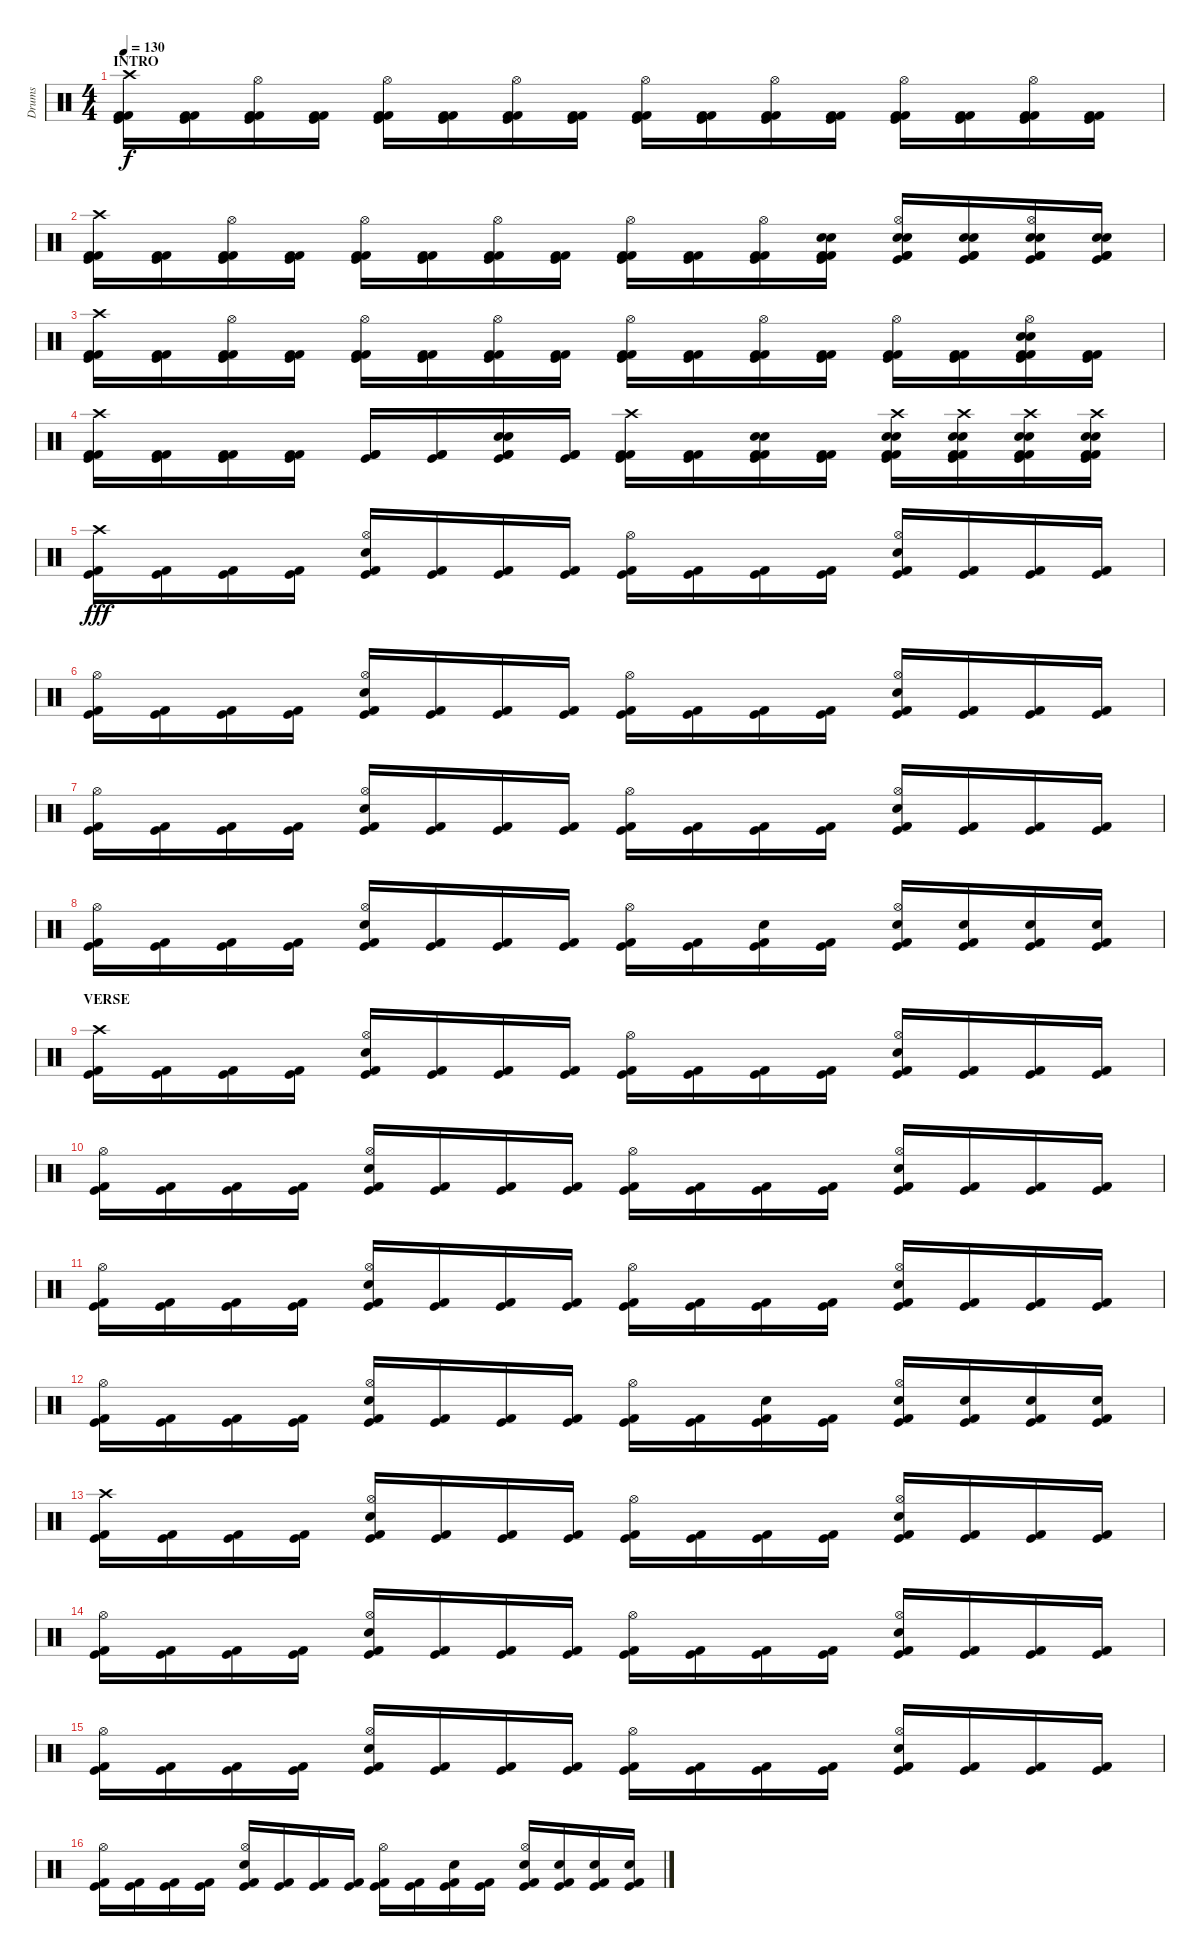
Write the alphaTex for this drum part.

\track ("Drums" "Drums") {instrument percussion}
\staff {score}
\articulation defaults
\ts (4 4)
\section ("" "INTRO")
\tempo 130
\clef neutral
\ks c
("Crash high (hit)" "Kick (hit)" "Kick (hit) 2" "Kick (hit) 2").16{dy f} ("Kick (hit)" "Kick (hit) 2" "Kick (hit) 2").16 ("Hi-Hat (open)" "Kick (hit)" "Kick (hit) 2" "Kick (hit) 2").16 ("Kick (hit)" "Kick (hit) 2" "Kick (hit) 2").16 ("Hi-Hat (open)" "Kick (hit)" "Kick (hit) 2" "Kick (hit) 2").16 ("Kick (hit)" "Kick (hit) 2" "Kick (hit) 2").16 ("Hi-Hat (open)" "Kick (hit)" "Kick (hit) 2" "Kick (hit) 2").16 ("Kick (hit)" "Kick (hit) 2" "Kick (hit) 2").16 ("Hi-Hat (open)" "Kick (hit)" "Kick (hit) 2" "Kick (hit) 2").16 ("Kick (hit)" "Kick (hit) 2" "Kick (hit) 2").16 ("Hi-Hat (open)" "Kick (hit)" "Kick (hit) 2" "Kick (hit) 2").16 ("Kick (hit)" "Kick (hit) 2" "Kick (hit) 2").16 ("Hi-Hat (open)" "Kick (hit)" "Kick (hit) 2" "Kick (hit) 2").16 ("Kick (hit)" "Kick (hit) 2" "Kick (hit) 2").16 ("Hi-Hat (open)" "Kick (hit)" "Kick (hit) 2" "Kick (hit) 2").16 ("Kick (hit)" "Kick (hit) 2" "Kick (hit) 2").16 |
("Crash high (hit)" "Kick (hit)" "Kick (hit) 2" "Kick (hit) 2").16 ("Kick (hit)" "Kick (hit) 2" "Kick (hit) 2").16 ("Hi-Hat (open)" "Kick (hit)" "Kick (hit) 2" "Kick (hit) 2").16 ("Kick (hit)" "Kick (hit) 2" "Kick (hit) 2").16 ("Hi-Hat (open)" "Kick (hit)" "Kick (hit) 2" "Kick (hit) 2").16 ("Kick (hit)" "Kick (hit) 2" "Kick (hit) 2").16 ("Hi-Hat (open)" "Kick (hit)" "Kick (hit) 2" "Kick (hit) 2").16 ("Kick (hit)" "Kick (hit) 2" "Kick (hit) 2").16 ("Hi-Hat (open)" "Kick (hit)" "Kick (hit) 2" "Kick (hit) 2").16 ("Kick (hit)" "Kick (hit) 2" "Kick (hit) 2").16 ("Hi-Hat (open)" "Kick (hit)" "Kick (hit) 2" "Kick (hit) 2").16 ("Kick (hit)" "Kick (hit) 2" "Electric Snare (hit)" "Electric Snare (hit)" "Kick (hit) 2").16 ("Hi-Hat (open)" "Kick (hit)" "Kick (hit) 2" "Electric Snare (hit)" "Electric Snare (hit)" "Kick (hit) 2").16 ("Kick (hit)" "Kick (hit) 2" "Electric Snare (hit)" "Electric Snare (hit)" "Kick (hit) 2").16 ("Hi-Hat (open)" "Kick (hit)" "Kick (hit) 2" "Electric Snare (hit)" "Electric Snare (hit)" "Kick (hit) 2").16 ("Kick (hit)" "Kick (hit) 2" "Electric Snare (hit)" "Electric Snare (hit)" "Kick (hit) 2").16 |
("Crash high (hit)" "Kick (hit)" "Kick (hit) 2" "Kick (hit) 2").16 ("Kick (hit)" "Kick (hit) 2" "Kick (hit) 2").16 ("Hi-Hat (open)" "Kick (hit)" "Kick (hit) 2" "Kick (hit) 2").16 ("Kick (hit)" "Kick (hit) 2" "Kick (hit) 2").16 ("Hi-Hat (open)" "Kick (hit)" "Kick (hit) 2" "Kick (hit) 2").16 ("Kick (hit)" "Kick (hit) 2" "Kick (hit) 2").16 ("Hi-Hat (open)" "Kick (hit)" "Kick (hit) 2" "Kick (hit) 2").16 ("Kick (hit)" "Kick (hit) 2" "Kick (hit) 2").16 ("Hi-Hat (open)" "Kick (hit)" "Kick (hit) 2" "Kick (hit) 2").16 ("Kick (hit)" "Kick (hit) 2" "Kick (hit) 2").16 ("Hi-Hat (open)" "Kick (hit)" "Kick (hit) 2" "Kick (hit) 2").16 ("Kick (hit)" "Kick (hit) 2" "Kick (hit) 2").16 ("Hi-Hat (open)" "Kick (hit)" "Kick (hit) 2" "Kick (hit) 2").16 ("Kick (hit)" "Kick (hit) 2" "Kick (hit) 2").16 ("Hi-Hat (open)" "Kick (hit)" "Kick (hit) 2" "Electric Snare (hit)" "Electric Snare (hit)" "Kick (hit) 2").16 ("Kick (hit)" "Kick (hit) 2" "Kick (hit) 2").16 |
("Crash high (hit)" "Kick (hit)" "Kick (hit) 2" "Kick (hit) 2").16 ("Kick (hit)" "Kick (hit) 2" "Kick (hit) 2").16 ("Kick (hit)" "Kick (hit) 2" "Kick (hit) 2").16 ("Kick (hit)" "Kick (hit) 2" "Kick (hit) 2").16 ("Kick (hit)" "Kick (hit) 2" "Kick (hit) 2").16 ("Kick (hit)" "Kick (hit) 2" "Kick (hit) 2").16 ("Electric Snare (hit)" "Electric Snare (hit)" "Kick (hit)" "Kick (hit) 2" "Kick (hit) 2").16 ("Kick (hit)" "Kick (hit) 2" "Kick (hit) 2").16 ("Crash high (hit)" "Kick (hit)" "Kick (hit) 2" "Kick (hit) 2").16 ("Kick (hit)" "Kick (hit) 2" "Kick (hit) 2").16 ("Electric Snare (hit)" "Electric Snare (hit)" "Kick (hit)" "Kick (hit) 2" "Kick (hit) 2").16 ("Kick (hit)" "Kick (hit) 2" "Kick (hit) 2").16 ("Crash high (hit)" "Electric Snare (hit)" "Electric Snare (hit)" "Kick (hit)" "Kick (hit) 2" "Kick (hit) 2").16 ("Crash high (hit)" "Electric Snare (hit)" "Electric Snare (hit)" "Kick (hit)" "Kick (hit) 2" "Kick (hit) 2").16 ("Crash high (hit)" "Electric Snare (hit)" "Electric Snare (hit)" "Kick (hit)" "Kick (hit) 2" "Kick (hit) 2").16 ("Crash high (hit)" "Electric Snare (hit)" "Electric Snare (hit)" "Kick (hit)" "Kick (hit) 2" "Kick (hit) 2").16 |
("Crash high (hit)" "Kick (hit)" "Kick (hit) 2").16{dy fff} ("Kick (hit)" "Kick (hit) 2").16 ("Kick (hit)" "Kick (hit) 2").16 ("Kick (hit)" "Kick (hit) 2").16 ("Hi-Hat (open)" "Electric Snare (hit)" "Kick (hit)" "Kick (hit) 2").16 ("Kick (hit)" "Kick (hit) 2").16 ("Kick (hit)" "Kick (hit) 2").16 ("Kick (hit)" "Kick (hit) 2").16 ("Hi-Hat (open)" "Kick (hit)" "Kick (hit) 2").16 ("Kick (hit)" "Kick (hit) 2").16 ("Kick (hit)" "Kick (hit) 2").16 ("Kick (hit)" "Kick (hit) 2").16 ("Hi-Hat (open)" "Electric Snare (hit)" "Kick (hit)" "Kick (hit) 2").16 ("Kick (hit)" "Kick (hit) 2").16 ("Kick (hit)" "Kick (hit) 2").16 ("Kick (hit)" "Kick (hit) 2").16 |
("Hi-Hat (open)" "Kick (hit)" "Kick (hit) 2").16 ("Kick (hit)" "Kick (hit) 2").16 ("Kick (hit)" "Kick (hit) 2").16 ("Kick (hit)" "Kick (hit) 2").16 ("Hi-Hat (open)" "Electric Snare (hit)" "Kick (hit)" "Kick (hit) 2").16 ("Kick (hit)" "Kick (hit) 2").16 ("Kick (hit)" "Kick (hit) 2").16 ("Kick (hit)" "Kick (hit) 2").16 ("Hi-Hat (open)" "Kick (hit)" "Kick (hit) 2").16 ("Kick (hit)" "Kick (hit) 2").16 ("Kick (hit)" "Kick (hit) 2").16 ("Kick (hit)" "Kick (hit) 2").16 ("Hi-Hat (open)" "Electric Snare (hit)" "Kick (hit)" "Kick (hit) 2").16 ("Kick (hit)" "Kick (hit) 2").16 ("Kick (hit)" "Kick (hit) 2").16 ("Kick (hit)" "Kick (hit) 2").16 |
("Hi-Hat (open)" "Kick (hit)" "Kick (hit) 2").16 ("Kick (hit)" "Kick (hit) 2").16 ("Kick (hit)" "Kick (hit) 2").16 ("Kick (hit)" "Kick (hit) 2").16 ("Hi-Hat (open)" "Electric Snare (hit)" "Kick (hit)" "Kick (hit) 2").16 ("Kick (hit)" "Kick (hit) 2").16 ("Kick (hit)" "Kick (hit) 2").16 ("Kick (hit)" "Kick (hit) 2").16 ("Hi-Hat (open)" "Kick (hit)" "Kick (hit) 2").16 ("Kick (hit)" "Kick (hit) 2").16 ("Kick (hit)" "Kick (hit) 2").16 ("Kick (hit)" "Kick (hit) 2").16 ("Hi-Hat (open)" "Electric Snare (hit)" "Kick (hit)" "Kick (hit) 2").16 ("Kick (hit)" "Kick (hit) 2").16 ("Kick (hit)" "Kick (hit) 2").16 ("Kick (hit)" "Kick (hit) 2").16 |
("Hi-Hat (open)" "Kick (hit)" "Kick (hit) 2").16 ("Kick (hit)" "Kick (hit) 2").16 ("Kick (hit)" "Kick (hit) 2").16 ("Kick (hit)" "Kick (hit) 2").16 ("Hi-Hat (open)" "Electric Snare (hit)" "Kick (hit)" "Kick (hit) 2").16 ("Kick (hit)" "Kick (hit) 2").16 ("Kick (hit)" "Kick (hit) 2").16 ("Kick (hit)" "Kick (hit) 2").16 ("Hi-Hat (open)" "Kick (hit)" "Kick (hit) 2").16 ("Kick (hit)" "Kick (hit) 2").16 ("Electric Snare (hit)" "Kick (hit)" "Kick (hit) 2").16 ("Kick (hit)" "Kick (hit) 2").16 ("Hi-Hat (open)" "Electric Snare (hit)" "Kick (hit)" "Kick (hit) 2").16 ("Electric Snare (hit)" "Kick (hit)" "Kick (hit) 2").16 ("Electric Snare (hit)" "Kick (hit)" "Kick (hit) 2").16 ("Electric Snare (hit)" "Kick (hit)" "Kick (hit) 2").16 |
\section ("" "VERSE")
("Crash high (hit)" "Kick (hit)" "Kick (hit) 2").16 ("Kick (hit)" "Kick (hit) 2").16 ("Kick (hit)" "Kick (hit) 2").16 ("Kick (hit)" "Kick (hit) 2").16 ("Hi-Hat (open)" "Electric Snare (hit)" "Kick (hit)" "Kick (hit) 2").16 ("Kick (hit)" "Kick (hit) 2").16 ("Kick (hit)" "Kick (hit) 2").16 ("Kick (hit)" "Kick (hit) 2").16 ("Hi-Hat (open)" "Kick (hit)" "Kick (hit) 2").16 ("Kick (hit)" "Kick (hit) 2").16 ("Kick (hit)" "Kick (hit) 2").16 ("Kick (hit)" "Kick (hit) 2").16 ("Hi-Hat (open)" "Electric Snare (hit)" "Kick (hit)" "Kick (hit) 2").16 ("Kick (hit)" "Kick (hit) 2").16 ("Kick (hit)" "Kick (hit) 2").16 ("Kick (hit)" "Kick (hit) 2").16 |
("Hi-Hat (open)" "Kick (hit)" "Kick (hit) 2").16 ("Kick (hit)" "Kick (hit) 2").16 ("Kick (hit)" "Kick (hit) 2").16 ("Kick (hit)" "Kick (hit) 2").16 ("Hi-Hat (open)" "Electric Snare (hit)" "Kick (hit)" "Kick (hit) 2").16 ("Kick (hit)" "Kick (hit) 2").16 ("Kick (hit)" "Kick (hit) 2").16 ("Kick (hit)" "Kick (hit) 2").16 ("Hi-Hat (open)" "Kick (hit)" "Kick (hit) 2").16 ("Kick (hit)" "Kick (hit) 2").16 ("Kick (hit)" "Kick (hit) 2").16 ("Kick (hit)" "Kick (hit) 2").16 ("Hi-Hat (open)" "Electric Snare (hit)" "Kick (hit)" "Kick (hit) 2").16 ("Kick (hit)" "Kick (hit) 2").16 ("Kick (hit)" "Kick (hit) 2").16 ("Kick (hit)" "Kick (hit) 2").16 |
("Hi-Hat (open)" "Kick (hit)" "Kick (hit) 2").16 ("Kick (hit)" "Kick (hit) 2").16 ("Kick (hit)" "Kick (hit) 2").16 ("Kick (hit)" "Kick (hit) 2").16 ("Hi-Hat (open)" "Electric Snare (hit)" "Kick (hit)" "Kick (hit) 2").16 ("Kick (hit)" "Kick (hit) 2").16 ("Kick (hit)" "Kick (hit) 2").16 ("Kick (hit)" "Kick (hit) 2").16 ("Hi-Hat (open)" "Kick (hit)" "Kick (hit) 2").16 ("Kick (hit)" "Kick (hit) 2").16 ("Kick (hit)" "Kick (hit) 2").16 ("Kick (hit)" "Kick (hit) 2").16 ("Hi-Hat (open)" "Electric Snare (hit)" "Kick (hit)" "Kick (hit) 2").16 ("Kick (hit)" "Kick (hit) 2").16 ("Kick (hit)" "Kick (hit) 2").16 ("Kick (hit)" "Kick (hit) 2").16 |
("Hi-Hat (open)" "Kick (hit)" "Kick (hit) 2").16 ("Kick (hit)" "Kick (hit) 2").16 ("Kick (hit)" "Kick (hit) 2").16 ("Kick (hit)" "Kick (hit) 2").16 ("Hi-Hat (open)" "Electric Snare (hit)" "Kick (hit)" "Kick (hit) 2").16 ("Kick (hit)" "Kick (hit) 2").16 ("Kick (hit)" "Kick (hit) 2").16 ("Kick (hit)" "Kick (hit) 2").16 ("Hi-Hat (open)" "Kick (hit)" "Kick (hit) 2").16 ("Kick (hit)" "Kick (hit) 2").16 ("Electric Snare (hit)" "Kick (hit)" "Kick (hit) 2").16 ("Kick (hit)" "Kick (hit) 2").16 ("Hi-Hat (open)" "Electric Snare (hit)" "Kick (hit)" "Kick (hit) 2").16 ("Electric Snare (hit)" "Kick (hit)" "Kick (hit) 2").16 ("Electric Snare (hit)" "Kick (hit)" "Kick (hit) 2").16 ("Electric Snare (hit)" "Kick (hit)" "Kick (hit) 2").16 |
("Crash high (hit)" "Kick (hit)" "Kick (hit) 2").16 ("Kick (hit)" "Kick (hit) 2").16 ("Kick (hit)" "Kick (hit) 2").16 ("Kick (hit)" "Kick (hit) 2").16 ("Hi-Hat (open)" "Electric Snare (hit)" "Kick (hit)" "Kick (hit) 2").16 ("Kick (hit)" "Kick (hit) 2").16 ("Kick (hit)" "Kick (hit) 2").16 ("Kick (hit)" "Kick (hit) 2").16 ("Hi-Hat (open)" "Kick (hit)" "Kick (hit) 2").16 ("Kick (hit)" "Kick (hit) 2").16 ("Kick (hit)" "Kick (hit) 2").16 ("Kick (hit)" "Kick (hit) 2").16 ("Hi-Hat (open)" "Electric Snare (hit)" "Kick (hit)" "Kick (hit) 2").16 ("Kick (hit)" "Kick (hit) 2").16 ("Kick (hit)" "Kick (hit) 2").16 ("Kick (hit)" "Kick (hit) 2").16 |
("Hi-Hat (open)" "Kick (hit)" "Kick (hit) 2").16 ("Kick (hit)" "Kick (hit) 2").16 ("Kick (hit)" "Kick (hit) 2").16 ("Kick (hit)" "Kick (hit) 2").16 ("Hi-Hat (open)" "Electric Snare (hit)" "Kick (hit)" "Kick (hit) 2").16 ("Kick (hit)" "Kick (hit) 2").16 ("Kick (hit)" "Kick (hit) 2").16 ("Kick (hit)" "Kick (hit) 2").16 ("Hi-Hat (open)" "Kick (hit)" "Kick (hit) 2").16 ("Kick (hit)" "Kick (hit) 2").16 ("Kick (hit)" "Kick (hit) 2").16 ("Kick (hit)" "Kick (hit) 2").16 ("Hi-Hat (open)" "Electric Snare (hit)" "Kick (hit)" "Kick (hit) 2").16 ("Kick (hit)" "Kick (hit) 2").16 ("Kick (hit)" "Kick (hit) 2").16 ("Kick (hit)" "Kick (hit) 2").16 |
("Hi-Hat (open)" "Kick (hit)" "Kick (hit) 2").16 ("Kick (hit)" "Kick (hit) 2").16 ("Kick (hit)" "Kick (hit) 2").16 ("Kick (hit)" "Kick (hit) 2").16 ("Hi-Hat (open)" "Electric Snare (hit)" "Kick (hit)" "Kick (hit) 2").16 ("Kick (hit)" "Kick (hit) 2").16 ("Kick (hit)" "Kick (hit) 2").16 ("Kick (hit)" "Kick (hit) 2").16 ("Hi-Hat (open)" "Kick (hit)" "Kick (hit) 2").16 ("Kick (hit)" "Kick (hit) 2").16 ("Kick (hit)" "Kick (hit) 2").16 ("Kick (hit)" "Kick (hit) 2").16 ("Hi-Hat (open)" "Electric Snare (hit)" "Kick (hit)" "Kick (hit) 2").16 ("Kick (hit)" "Kick (hit) 2").16 ("Kick (hit)" "Kick (hit) 2").16 ("Kick (hit)" "Kick (hit) 2").16 |
("Hi-Hat (open)" "Kick (hit)" "Kick (hit) 2").16 ("Kick (hit)" "Kick (hit) 2").16 ("Kick (hit)" "Kick (hit) 2").16 ("Kick (hit)" "Kick (hit) 2").16 ("Hi-Hat (open)" "Electric Snare (hit)" "Kick (hit)" "Kick (hit) 2").16 ("Kick (hit)" "Kick (hit) 2").16 ("Kick (hit)" "Kick (hit) 2").16 ("Kick (hit)" "Kick (hit) 2").16 ("Hi-Hat (open)" "Kick (hit)" "Kick (hit) 2").16 ("Kick (hit)" "Kick (hit) 2").16 ("Electric Snare (hit)" "Kick (hit)" "Kick (hit) 2").16 ("Kick (hit)" "Kick (hit) 2").16 ("Hi-Hat (open)" "Electric Snare (hit)" "Kick (hit)" "Kick (hit) 2").16 ("Electric Snare (hit)" "Kick (hit)" "Kick (hit) 2").16 ("Electric Snare (hit)" "Kick (hit)" "Kick (hit) 2").16 ("Electric Snare (hit)" "Kick (hit)" "Kick (hit) 2").16
